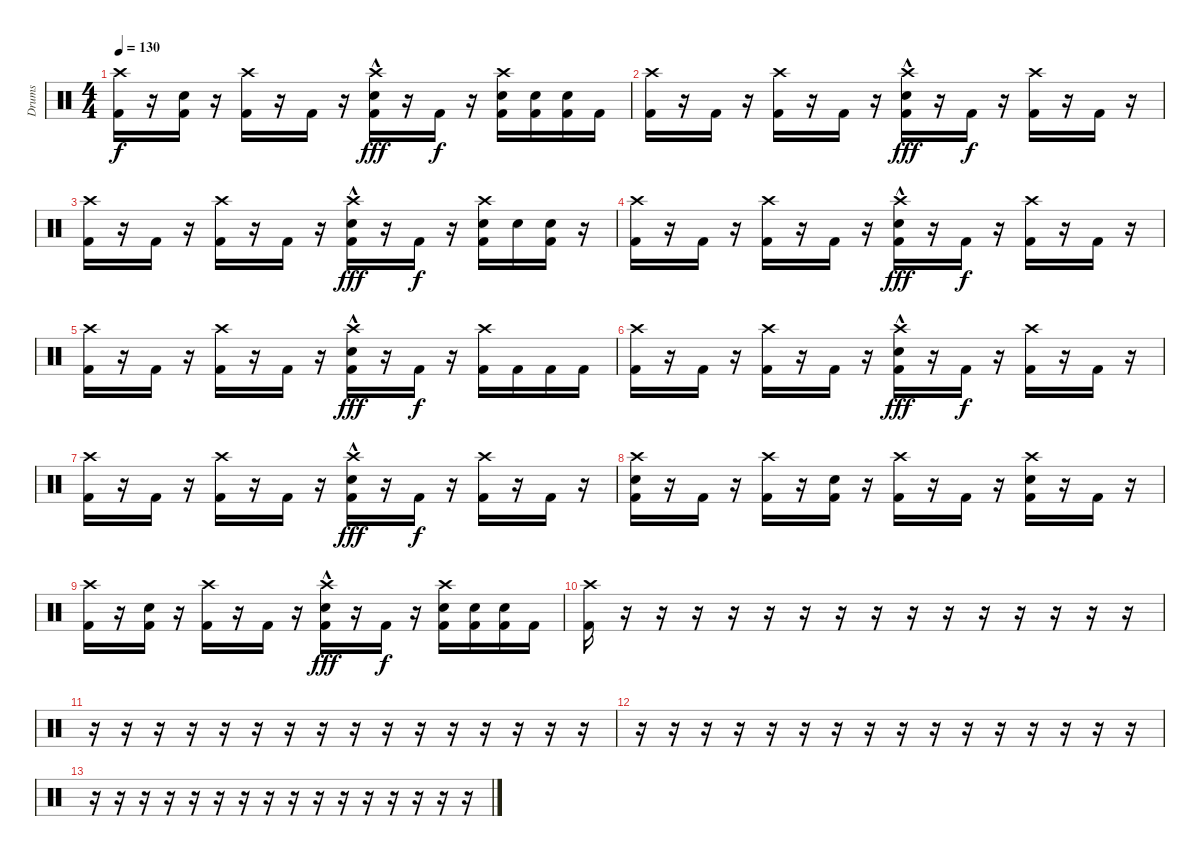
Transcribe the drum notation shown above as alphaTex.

\track ("Drums" "Drums") {instrument percussion}
\staff {score}
\articulation defaults
\ts (4 4)
\tempo 130
\clef neutral
\ks c
("Crash high (hit)" "Kick (hit) 2").16{dy f} r.16 ("Electric Snare (hit)" "Kick (hit) 2").16 r.16 ("Crash high (hit)" "Kick (hit) 2").16 r.16 "Kick (hit) 2".16 r.16 ("Crash high (hit)" "Electric Snare (hit)"{hac} "Kick (hit) 2").16{dy fff} r.16 "Kick (hit) 2".16{dy f} r.16 ("Crash high (hit)" "Electric Snare (hit)" "Kick (hit) 2").16 ("Electric Snare (hit)" "Kick (hit) 2").16 ("Electric Snare (hit)" "Kick (hit) 2").16 "Kick (hit) 2".16 |
("Crash high (hit)" "Kick (hit) 2").16 r.16 "Kick (hit) 2".16 r.16 ("Crash high (hit)" "Kick (hit) 2").16 r.16 "Kick (hit) 2".16 r.16 ("Crash high (hit)" "Electric Snare (hit)"{hac} "Kick (hit) 2").16{dy fff} r.16 "Kick (hit) 2".16{dy f} r.16 ("Crash high (hit)" "Kick (hit) 2").16 r.16 "Kick (hit) 2".16 r.16 |
("Crash high (hit)" "Kick (hit) 2").16 r.16 "Kick (hit) 2".16 r.16 ("Crash high (hit)" "Kick (hit) 2").16 r.16 "Kick (hit) 2".16 r.16 ("Crash high (hit)" "Electric Snare (hit)"{hac} "Kick (hit) 2").16{dy fff} r.16 "Kick (hit) 2".16{dy f} r.16 ("Crash high (hit)" "Electric Snare (hit)" "Kick (hit) 2").16 "Electric Snare (hit)".16 ("Electric Snare (hit)" "Kick (hit) 2").16 r.16 |
("Crash high (hit)" "Kick (hit) 2").16 r.16 "Kick (hit) 2".16 r.16 ("Crash high (hit)" "Kick (hit) 2").16 r.16 "Kick (hit) 2".16 r.16 ("Crash high (hit)" "Electric Snare (hit)"{hac} "Kick (hit) 2").16{dy fff} r.16 "Kick (hit) 2".16{dy f} r.16 ("Crash high (hit)" "Kick (hit) 2").16 r.16 "Kick (hit) 2".16 r.16 |
("Crash high (hit)" "Kick (hit) 2").16 r.16 "Kick (hit) 2".16 r.16 ("Crash high (hit)" "Kick (hit) 2").16 r.16 "Kick (hit) 2".16 r.16 ("Crash high (hit)" "Electric Snare (hit)"{hac} "Kick (hit) 2").16{dy fff} r.16 "Kick (hit) 2".16{dy f} r.16 ("Crash high (hit)" "Kick (hit) 2").16 "Kick (hit) 2".16 "Kick (hit) 2".16 "Kick (hit) 2".16 |
("Crash high (hit)" "Kick (hit) 2").16 r.16 "Kick (hit) 2".16 r.16 ("Crash high (hit)" "Kick (hit) 2").16 r.16 "Kick (hit) 2".16 r.16 ("Crash high (hit)" "Electric Snare (hit)"{hac} "Kick (hit) 2").16{dy fff} r.16 "Kick (hit) 2".16{dy f} r.16 ("Crash high (hit)" "Kick (hit) 2").16 r.16 "Kick (hit) 2".16 r.16 |
("Crash high (hit)" "Kick (hit) 2").16 r.16 "Kick (hit) 2".16 r.16 ("Crash high (hit)" "Kick (hit) 2").16 r.16 "Kick (hit) 2".16 r.16 ("Crash high (hit)" "Electric Snare (hit)"{hac} "Kick (hit) 2").16{dy fff} r.16 "Kick (hit) 2".16{dy f} r.16 ("Crash high (hit)" "Kick (hit) 2").16 r.16 "Kick (hit) 2".16 r.16 |
("Crash high (hit)" "Electric Snare (hit)" "Kick (hit) 2").16 r.16 "Kick (hit) 2".16 r.16 ("Crash high (hit)" "Kick (hit) 2").16 r.16 ("Electric Snare (hit)" "Kick (hit) 2").16 r.16 ("Crash high (hit)" "Kick (hit) 2").16 r.16 "Kick (hit) 2".16 r.16 ("Crash high (hit)" "Electric Snare (hit)" "Kick (hit) 2").16 r.16 "Kick (hit) 2".16 r.16 |
("Crash high (hit)" "Kick (hit) 2").16 r.16 ("Electric Snare (hit)" "Kick (hit) 2").16 r.16 ("Crash high (hit)" "Kick (hit) 2").16 r.16 "Kick (hit) 2".16 r.16 ("Crash high (hit)" "Electric Snare (hit)"{hac} "Kick (hit) 2").16{dy fff} r.16 "Kick (hit) 2".16{dy f} r.16 ("Crash high (hit)" "Electric Snare (hit)" "Kick (hit) 2").16 ("Electric Snare (hit)" "Kick (hit) 2").16 ("Electric Snare (hit)" "Kick (hit) 2").16 "Kick (hit) 2".16 |
("Crash high (hit)" "Kick (hit) 2").16 r.16 r.16 r.16 r.16 r.16 r.16 r.16 r.16 r.16 r.16 r.16 r.16 r.16 r.16 r.16 |
r.16 r.16 r.16 r.16 r.16 r.16 r.16 r.16 r.16 r.16 r.16 r.16 r.16 r.16 r.16 r.16 |
r.16 r.16 r.16 r.16 r.16 r.16 r.16 r.16 r.16 r.16 r.16 r.16 r.16 r.16 r.16 r.16 |
r.16 r.16 r.16 r.16 r.16 r.16 r.16 r.16 r.16 r.16 r.16 r.16 r.16 r.16 r.16 r.16
